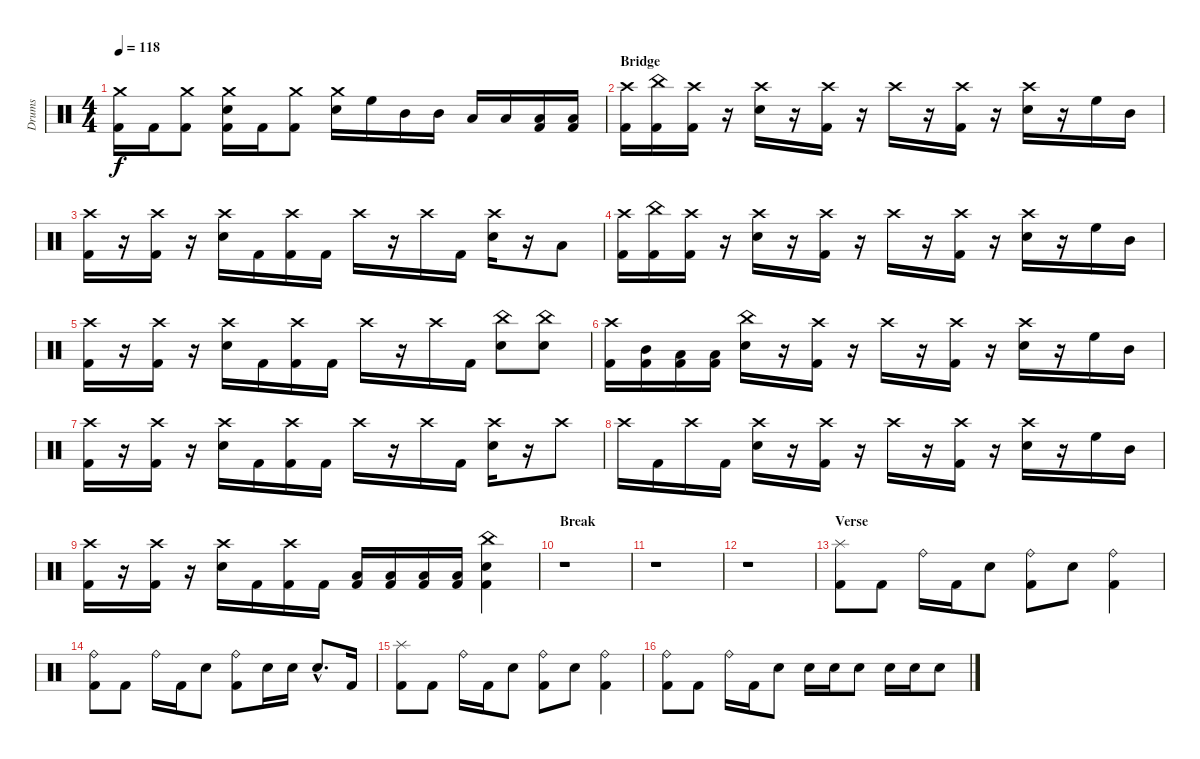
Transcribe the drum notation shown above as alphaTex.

\track ("Drums" "Drums") {instrument percussion}
\staff {score}
\articulation defaults
\ts (4 4)
\tempo 118
\clef neutral
\ks c
("Crash medium (hit)" "Kick (hit) 2").16{dy f} "Kick (hit) 2".16 ("Crash medium (hit)" "Kick (hit) 2").8 ("Crash medium (hit)" "Snare (hit) 2" "Kick (hit) 2").16 "Kick (hit) 2".16 ("Crash medium (hit)" "Kick (hit) 2").8 ("Crash medium (hit)" "Snare (hit) 2").16 "High Floor Tom (hit)".16 "Mid Tom (hit)".16 "Mid Tom (hit)".16 "Low Tom (hit)".16 "Low Tom (hit)".16 ("Low Floor Tom (hit)" "Kick (hit) 2").16 ("Low Floor Tom (hit)" "Kick (hit) 2").16 |
\section ("" "Bridge")
("Crash high (hit)" "Kick (hit) 2").16 ("China (hit)" "Kick (hit) 2").16 ("Crash high (hit)" "Kick (hit) 2").16 r.16 ("Crash high (hit)" "Snare (hit) 2").16 r.16 ("Crash high (hit)" "Kick (hit) 2").16 r.16 "Crash high (hit)".16 r.16 ("Crash high (hit)" "Kick (hit) 2").16 r.16 ("Crash high (hit)" "Snare (hit) 2").16 r.16 "High Floor Tom (hit)".16 "Mid Tom (hit)".16 |
("Crash high (hit)" "Kick (hit) 2").16 r.16 ("Crash high (hit)" "Kick (hit) 2").16 r.16 ("Crash high (hit)" "Snare (hit) 2").16 "Kick (hit) 2".16 ("Crash high (hit)" "Kick (hit) 2").16 "Kick (hit) 2".16 "Crash high (hit)".16 r.16 "Crash high (hit)".16 "Kick (hit) 2".16 ("Crash high (hit)" "Snare (hit) 2").16 r.16 "Low Floor Tom (hit)".8 |
("Crash high (hit)" "Kick (hit) 2").16 ("China (hit)" "Kick (hit) 2").16 ("Crash high (hit)" "Kick (hit) 2").16 r.16 ("Crash high (hit)" "Snare (hit) 2").16 r.16 ("Crash high (hit)" "Kick (hit) 2").16 r.16 "Crash high (hit)".16 r.16 ("Crash high (hit)" "Kick (hit) 2").16 r.16 ("Crash high (hit)" "Snare (hit) 2").16 r.16 "High Floor Tom (hit)".16 "Mid Tom (hit)".16 |
("Crash high (hit)" "Kick (hit) 2").16 r.16 ("Crash high (hit)" "Kick (hit) 2").16 r.16 ("Crash high (hit)" "Snare (hit) 2").16 "Kick (hit) 2".16 ("Crash high (hit)" "Kick (hit) 2").16 "Kick (hit) 2".16 "Crash high (hit)".16 r.16 "Crash high (hit)".16 "Kick (hit) 2".16 ("China (hit)" "Snare (hit) 2").8 ("China (hit)" "Snare (hit) 2").8 |
("Crash high (hit)" "Kick (hit) 2").16 ("Mid Tom (hit)" "Kick (hit) 2").16 ("Low Tom (hit)" "Kick (hit) 2").16 ("Low Tom (hit)" "Kick (hit) 2").16 ("China (hit)" "Snare (hit) 2").16 r.16 ("Crash high (hit)" "Kick (hit) 2").16 r.16 "Crash high (hit)".16 r.16 ("Crash high (hit)" "Kick (hit) 2").16 r.16 ("Crash high (hit)" "Snare (hit) 2").16 r.16 "High Floor Tom (hit)".16 "Mid Tom (hit)".16 |
("Crash high (hit)" "Kick (hit) 2").16 r.16 ("Crash high (hit)" "Kick (hit) 2").16 r.16 ("Crash high (hit)" "Snare (hit) 2").16 "Kick (hit) 2".16 ("Crash high (hit)" "Kick (hit) 2").16 "Kick (hit) 2".16 "Crash high (hit)".16 r.16 "Crash high (hit)".16 "Kick (hit) 2".16 ("Crash high (hit)" "Snare (hit) 2").16 r.16 "Crash high (hit)".8 |
"Crash high (hit)".16 "Kick (hit) 2".16 "Crash high (hit)".16 "Kick (hit) 2".16 ("Crash high (hit)" "Snare (hit) 2").16 r.16 ("Crash high (hit)" "Kick (hit) 2").16 r.16 "Crash high (hit)".16 r.16 ("Crash high (hit)" "Kick (hit) 2").16 r.16 ("Crash high (hit)" "Snare (hit) 2").16 r.16 "High Floor Tom (hit)".16 "Mid Tom (hit)".16 |
("Crash high (hit)" "Kick (hit) 2").16 r.16 ("Crash high (hit)" "Kick (hit) 2").16 r.16 ("Crash high (hit)" "Snare (hit) 2").16 "Kick (hit) 2".16 ("Crash high (hit)" "Kick (hit) 2").16 "Kick (hit) 2".16 ("Low Tom (hit)" "Kick (hit) 2").16 ("Low Tom (hit)" "Kick (hit) 2").16 ("Low Tom (hit)" "Kick (hit) 2").16 ("Low Tom (hit)" "Kick (hit) 2").16 ("China (hit)" "Snare (hit) 2" "Kick (hit) 2").4 |
\section ("" "Break")
r.1 |
r.1 |
r.1 |
\section ("" "Verse")
("Splash (hit)" "Kick (hit) 2").8 "Kick (hit) 2".8 "Ride (bell)".16 "Kick (hit) 2".16 "Snare (hit) 2".8 ("Ride (bell)" "Kick (hit) 2").8 "Snare (hit) 2".8 ("Ride (bell)" "Kick (hit) 2").4 |
("Ride (bell)" "Kick (hit) 2").8 "Kick (hit) 2".8 "Ride (bell)".16 "Kick (hit) 2".16 "Snare (hit) 2".8 ("Ride (bell)" "Kick (hit) 2").8 "Snare (hit) 2".16 "Snare (hit) 2".16 "Snare (hit) 2"{hac}.8{d} "Kick (hit) 2".16 |
("Splash (hit)" "Kick (hit) 2").8 "Kick (hit) 2".8 "Ride (bell)".16 "Kick (hit) 2".16 "Snare (hit) 2".8 ("Ride (bell)" "Kick (hit) 2").8 "Snare (hit) 2".8 ("Ride (bell)" "Kick (hit) 2").4 |
("Ride (bell)" "Kick (hit) 2").8 "Kick (hit) 2".8 "Ride (bell)".16 "Kick (hit) 2".16 "Snare (hit) 2".8 "Snare (hit) 2".16 "Snare (hit) 2".16 "Snare (hit) 2".8 "Snare (hit) 2".16 "Snare (hit) 2".16 "Snare (hit) 2".8
